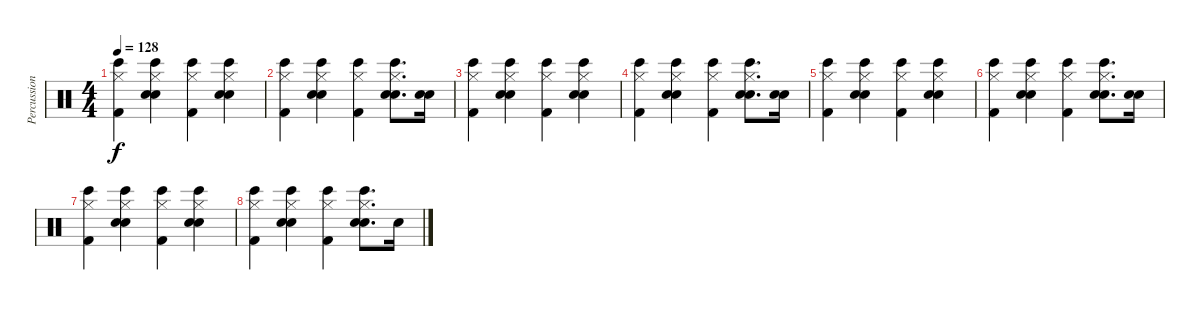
\track ("Percussion" "Percussion") {instrument percussion}
\staff {score}
\articulation defaults
\ts (4 4)
\tempo 128
\clef neutral
\ks c
("Hi-Hat (closed)" "Bongo High (hit)" "Kick (hit) 2").4{dy f} ("Hi-Hat (closed)" "Bongo High (hit)" "Hand Clap (hit)" "Electric Snare (hit)").4 ("Hi-Hat (closed)" "Bongo High (hit)" "Kick (hit) 2").4 ("Hi-Hat (closed)" "Bongo High (hit)" "Hand Clap (hit)" "Electric Snare (hit)").4 |
("Hi-Hat (closed)" "Bongo High (hit)" "Kick (hit) 2").4 ("Hi-Hat (closed)" "Bongo High (hit)" "Hand Clap (hit)" "Electric Snare (hit)").4 ("Hi-Hat (closed)" "Bongo High (hit)" "Kick (hit) 2").4 ("Hi-Hat (closed)" "Bongo High (hit)" "Hand Clap (hit)" "Electric Snare (hit)").8{d} ("Hand Clap (hit)" "Electric Snare (hit)").16 |
("Hi-Hat (closed)" "Bongo High (hit)" "Kick (hit) 2").4 ("Hi-Hat (closed)" "Bongo High (hit)" "Hand Clap (hit)" "Electric Snare (hit)").4 ("Hi-Hat (closed)" "Bongo High (hit)" "Kick (hit) 2").4 ("Hi-Hat (closed)" "Bongo High (hit)" "Hand Clap (hit)" "Electric Snare (hit)").4 |
("Hi-Hat (closed)" "Bongo High (hit)" "Kick (hit) 2").4 ("Hi-Hat (closed)" "Bongo High (hit)" "Hand Clap (hit)" "Electric Snare (hit)").4 ("Hi-Hat (closed)" "Bongo High (hit)" "Kick (hit) 2").4 ("Hi-Hat (closed)" "Bongo High (hit)" "Hand Clap (hit)" "Electric Snare (hit)").8{d} ("Hand Clap (hit)" "Electric Snare (hit)").16 |
("Hi-Hat (closed)" "Bongo High (hit)" "Kick (hit) 2").4 ("Hi-Hat (closed)" "Bongo High (hit)" "Hand Clap (hit)" "Electric Snare (hit)").4 ("Hi-Hat (closed)" "Bongo High (hit)" "Kick (hit) 2").4 ("Hi-Hat (closed)" "Bongo High (hit)" "Hand Clap (hit)" "Electric Snare (hit)").4 |
("Hi-Hat (closed)" "Bongo High (hit)" "Kick (hit) 2").4 ("Hi-Hat (closed)" "Bongo High (hit)" "Hand Clap (hit)" "Electric Snare (hit)").4 ("Hi-Hat (closed)" "Bongo High (hit)" "Kick (hit) 2").4 ("Hi-Hat (closed)" "Bongo High (hit)" "Hand Clap (hit)" "Electric Snare (hit)").8{d} ("Hand Clap (hit)" "Electric Snare (hit)").16 |
("Hi-Hat (closed)" "Bongo High (hit)" "Kick (hit) 2").4 ("Hi-Hat (closed)" "Bongo High (hit)" "Hand Clap (hit)" "Electric Snare (hit)").4 ("Hi-Hat (closed)" "Bongo High (hit)" "Kick (hit) 2").4 ("Hi-Hat (closed)" "Bongo High (hit)" "Hand Clap (hit)" "Electric Snare (hit)").4 |
("Hi-Hat (closed)" "Bongo High (hit)" "Kick (hit) 2").4 ("Hi-Hat (closed)" "Bongo High (hit)" "Hand Clap (hit)" "Electric Snare (hit)").4 ("Hi-Hat (closed)" "Bongo High (hit)" "Kick (hit) 2").4 ("Hi-Hat (closed)" "Bongo High (hit)" "Hand Clap (hit)" "Electric Snare (hit)").8{d} "Hand Clap (hit)".16
